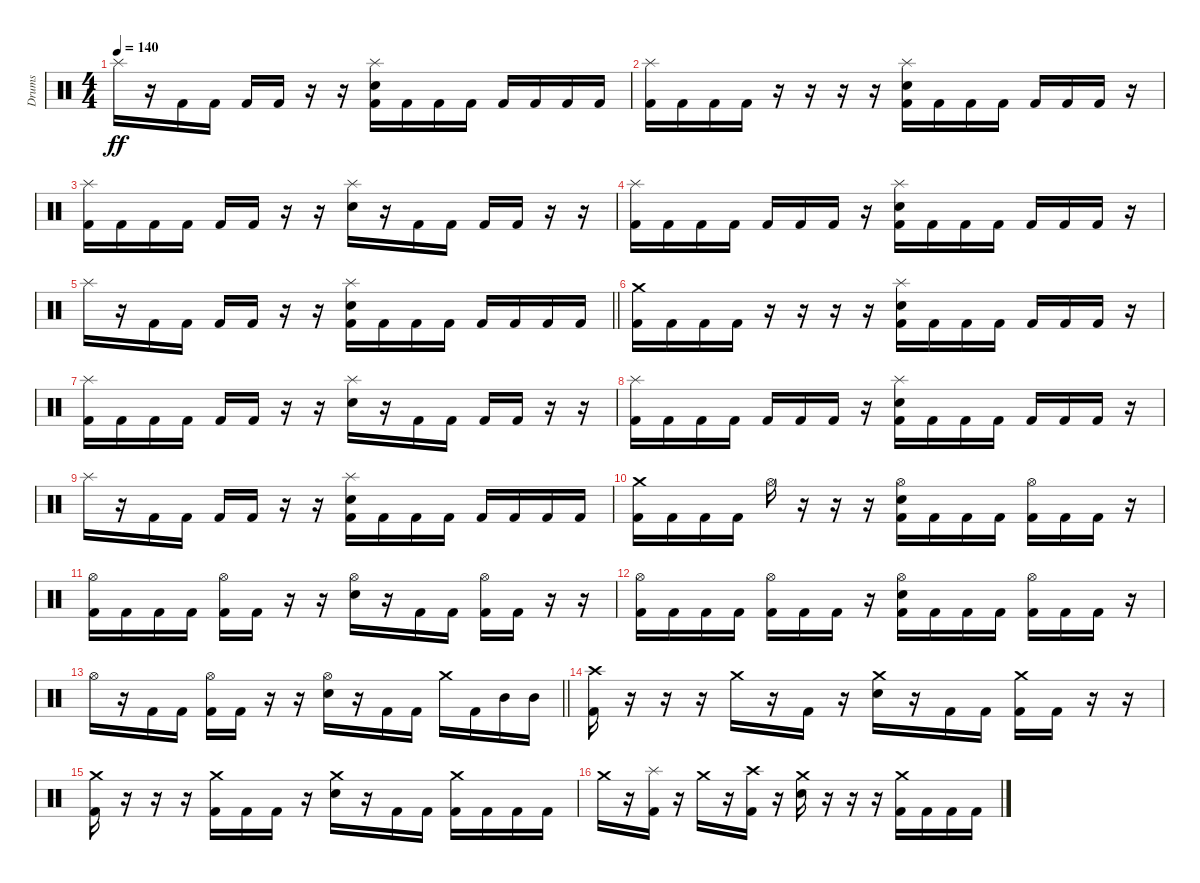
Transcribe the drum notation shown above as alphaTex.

\track ("Drums" "Drums") {instrument percussion}
\staff {score}
\articulation defaults
\ts (4 4)
\tempo 140
\clef neutral
\ks c "Splash (hit)".16{dy ff}
r.16 "Kick (hit) 2".16 "Kick (hit) 2".16 "Kick (hit) 2".16 "Kick (hit) 2".16 r.16 r.16 ("Splash (hit)" "Electric Snare (hit)" "Kick (hit) 2").16 "Kick (hit) 2".16 "Kick (hit) 2".16 "Kick (hit) 2".16 "Kick (hit) 2".16 "Kick (hit) 2".16 "Kick (hit) 2".16 "Kick (hit) 2".16 |
("Splash (hit)" "Kick (hit) 2").16 "Kick (hit) 2".16 "Kick (hit) 2".16 "Kick (hit) 2".16 r.16 r.16 r.16 r.16 ("Splash (hit)" "Electric Snare (hit)" "Kick (hit) 2").16 "Kick (hit) 2".16 "Kick (hit) 2".16 "Kick (hit) 2".16 "Kick (hit) 2".16 "Kick (hit) 2".16 "Kick (hit) 2".16 r.16 |
("Splash (hit)" "Kick (hit) 2").16 "Kick (hit) 2".16 "Kick (hit) 2".16 "Kick (hit) 2".16 "Kick (hit) 2".16 "Kick (hit) 2".16 r.16 r.16 ("Splash (hit)" "Electric Snare (hit)").16 r.16 "Kick (hit) 2".16 "Kick (hit) 2".16 "Kick (hit) 2".16 "Kick (hit) 2".16 r.16 r.16 |
("Splash (hit)" "Kick (hit) 2").16 "Kick (hit) 2".16 "Kick (hit) 2".16 "Kick (hit) 2".16 "Kick (hit) 2".16 "Kick (hit) 2".16 "Kick (hit) 2".16 r.16 ("Splash (hit)" "Electric Snare (hit)" "Kick (hit) 2").16 "Kick (hit) 2".16 "Kick (hit) 2".16 "Kick (hit) 2".16 "Kick (hit) 2".16 "Kick (hit) 2".16 "Kick (hit) 2".16 r.16 |
\barLineRight lightlight "Splash (hit)".16
r.16 "Kick (hit) 2".16 "Kick (hit) 2".16 "Kick (hit) 2".16 "Kick (hit) 2".16 r.16 r.16 ("Splash (hit)" "Electric Snare (hit)" "Kick (hit) 2").16 "Kick (hit) 2".16 "Kick (hit) 2".16 "Kick (hit) 2".16 "Kick (hit) 2".16 "Kick (hit) 2".16 "Kick (hit) 2".16 "Kick (hit) 2".16 |
\section ("" "")
("Crash medium (hit)" "Kick (hit) 2").16 "Kick (hit) 2".16 "Kick (hit) 2".16 "Kick (hit) 2".16 r.16 r.16 r.16 r.16 ("Splash (hit)" "Electric Snare (hit)" "Kick (hit) 2").16 "Kick (hit) 2".16 "Kick (hit) 2".16 "Kick (hit) 2".16 "Kick (hit) 2".16 "Kick (hit) 2".16 "Kick (hit) 2".16 r.16 |
("Splash (hit)" "Kick (hit) 2").16 "Kick (hit) 2".16 "Kick (hit) 2".16 "Kick (hit) 2".16 "Kick (hit) 2".16 "Kick (hit) 2".16 r.16 r.16 ("Splash (hit)" "Electric Snare (hit)").16 r.16 "Kick (hit) 2".16 "Kick (hit) 2".16 "Kick (hit) 2".16 "Kick (hit) 2".16 r.16 r.16 |
("Splash (hit)" "Kick (hit) 2").16 "Kick (hit) 2".16 "Kick (hit) 2".16 "Kick (hit) 2".16 "Kick (hit) 2".16 "Kick (hit) 2".16 "Kick (hit) 2".16 r.16 ("Splash (hit)" "Electric Snare (hit)" "Kick (hit) 2").16 "Kick (hit) 2".16 "Kick (hit) 2".16 "Kick (hit) 2".16 "Kick (hit) 2".16 "Kick (hit) 2".16 "Kick (hit) 2".16 r.16 |
"Splash (hit)".16 r.16 "Kick (hit) 2".16 "Kick (hit) 2".16 "Kick (hit) 2".16 "Kick (hit) 2".16 r.16 r.16 ("Splash (hit)" "Electric Snare (hit)" "Kick (hit) 2").16 "Kick (hit) 2".16 "Kick (hit) 2".16 "Kick (hit) 2".16 "Kick (hit) 2".16 "Kick (hit) 2".16 "Kick (hit) 2".16 "Kick (hit) 2".16 |
("Crash medium (hit)" "Kick (hit) 2").16 "Kick (hit) 2".16 "Kick (hit) 2".16 "Kick (hit) 2".16 "Hi-Hat (open)".16 r.16 r.16 r.16 ("Hi-Hat (open)" "Electric Snare (hit)" "Kick (hit) 2").16 "Kick (hit) 2".16 "Kick (hit) 2".16 "Kick (hit) 2".16 ("Hi-Hat (open)" "Kick (hit) 2").16 "Kick (hit) 2".16 "Kick (hit) 2".16 r.16 |
("Hi-Hat (open)" "Kick (hit) 2").16 "Kick (hit) 2".16 "Kick (hit) 2".16 "Kick (hit) 2".16 ("Hi-Hat (open)" "Kick (hit) 2").16 "Kick (hit) 2".16 r.16 r.16 ("Hi-Hat (open)" "Electric Snare (hit)").16 r.16 "Kick (hit) 2".16 "Kick (hit) 2".16 ("Hi-Hat (open)" "Kick (hit) 2").16 "Kick (hit) 2".16 r.16 r.16 |
("Hi-Hat (open)" "Kick (hit) 2").16 "Kick (hit) 2".16 "Kick (hit) 2".16 "Kick (hit) 2".16 ("Hi-Hat (open)" "Kick (hit) 2").16 "Kick (hit) 2".16 "Kick (hit) 2".16 r.16 ("Hi-Hat (open)" "Electric Snare (hit)" "Kick (hit) 2").16 "Kick (hit) 2".16 "Kick (hit) 2".16 "Kick (hit) 2".16 ("Hi-Hat (open)" "Kick (hit) 2").16 "Kick (hit) 2".16 "Kick (hit) 2".16 r.16 |
\barLineRight lightlight "Hi-Hat (open)".16
r.16 "Kick (hit) 2".16 "Kick (hit) 2".16 ("Hi-Hat (open)" "Kick (hit) 2").16 "Kick (hit) 2".16 r.16 r.16 ("Hi-Hat (open)" "Electric Snare (hit)").16 r.16 "Kick (hit) 2".16 "Kick (hit) 2".16 "Crash medium (hit)".16 "Kick (hit) 2".16 "Mid Tom (hit)".16 "Mid Tom (hit)".16 |
\section ("" "")
("Crash high (hit)" "Kick (hit) 2").16 r.16 r.16 r.16 "Crash medium (hit)".16 r.16 "Kick (hit) 2".16 r.16 ("Crash medium (hit)" "Electric Snare (hit)").16 r.16 "Kick (hit) 2".16 "Kick (hit) 2".16 ("Crash medium (hit)" "Kick (hit) 2").16 "Kick (hit) 2".16 r.16 r.16 |
("Crash medium (hit)" "Kick (hit) 2").16 r.16 r.16 r.16 ("Crash medium (hit)" "Kick (hit) 2").16 "Kick (hit) 2".16 "Kick (hit) 2".16 r.16 ("Crash medium (hit)" "Electric Snare (hit)").16 r.16 "Kick (hit) 2".16 "Kick (hit) 2".16 ("Crash medium (hit)" "Kick (hit) 2").16 "Kick (hit) 2".16 "Kick (hit) 2".16 "Kick (hit) 2".16 |
"Crash medium (hit)".16 r.16 ("Splash (hit)" "Kick (hit) 2").16 r.16 "Crash medium (hit)".16 r.16 ("Crash high (hit)" "Kick (hit) 2").16 r.16 ("Crash medium (hit)" "Electric Snare (hit)").16 r.16 r.16 r.16 ("Crash medium (hit)" "Kick (hit) 2").16 "Kick (hit) 2".16 "Kick (hit) 2".16 "Kick (hit) 2".16
